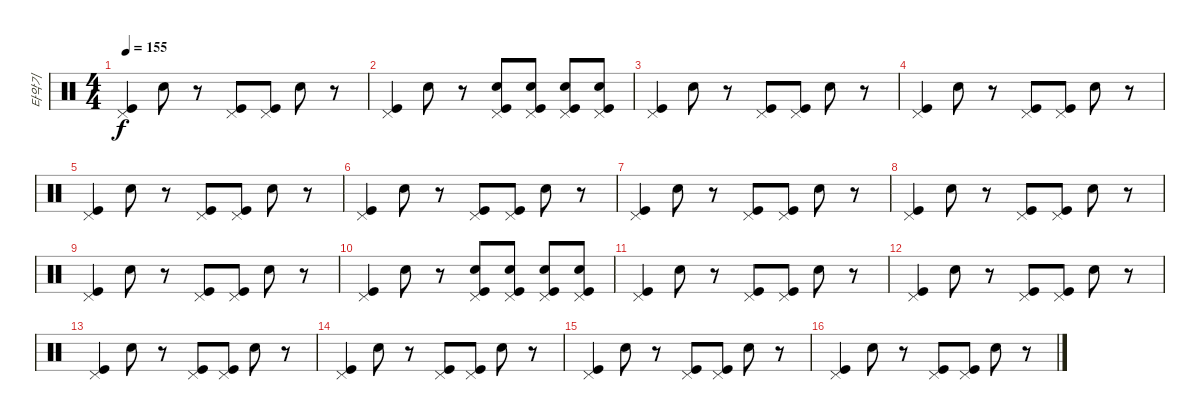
\track ("타악기" "타악기") {instrument percussion}
\staff {score}
\articulation defaults
\ts (4 4)
\tempo 155
\clef neutral
\ks c
("Pedal Hi-Hat (hit)" "Kick (hit)").4{dy f} "Electric Snare (hit)".8 r.8 ("Pedal Hi-Hat (hit)" "Kick (hit)").8 ("Pedal Hi-Hat (hit)" "Kick (hit)").8 "Electric Snare (hit)".8 r.8 |
("Pedal Hi-Hat (hit)" "Kick (hit)").4 "Electric Snare (hit)".8 r.8 ("Pedal Hi-Hat (hit)" "Electric Snare (hit)" "Kick (hit)").8 ("Pedal Hi-Hat (hit)" "Electric Snare (hit)" "Kick (hit)").8 ("Pedal Hi-Hat (hit)" "Electric Snare (hit)" "Kick (hit)").8 ("Pedal Hi-Hat (hit)" "Electric Snare (hit)" "Kick (hit)").8 |
("Pedal Hi-Hat (hit)" "Kick (hit)").4 "Electric Snare (hit)".8 r.8 ("Pedal Hi-Hat (hit)" "Kick (hit)").8 ("Pedal Hi-Hat (hit)" "Kick (hit)").8 "Electric Snare (hit)".8 r.8 |
("Pedal Hi-Hat (hit)" "Kick (hit)").4 "Electric Snare (hit)".8 r.8 ("Pedal Hi-Hat (hit)" "Kick (hit)").8 ("Pedal Hi-Hat (hit)" "Kick (hit)").8 "Electric Snare (hit)".8 r.8 |
("Pedal Hi-Hat (hit)" "Kick (hit)").4 "Electric Snare (hit)".8 r.8 ("Pedal Hi-Hat (hit)" "Kick (hit)").8 ("Pedal Hi-Hat (hit)" "Kick (hit)").8 "Electric Snare (hit)".8 r.8 |
("Pedal Hi-Hat (hit)" "Kick (hit)").4 "Electric Snare (hit)".8 r.8 ("Pedal Hi-Hat (hit)" "Kick (hit)").8 ("Pedal Hi-Hat (hit)" "Kick (hit)").8 "Electric Snare (hit)".8 r.8 |
("Pedal Hi-Hat (hit)" "Kick (hit)").4 "Electric Snare (hit)".8 r.8 ("Pedal Hi-Hat (hit)" "Kick (hit)").8 ("Pedal Hi-Hat (hit)" "Kick (hit)").8 "Electric Snare (hit)".8 r.8 |
("Pedal Hi-Hat (hit)" "Kick (hit)").4 "Electric Snare (hit)".8 r.8 ("Pedal Hi-Hat (hit)" "Kick (hit)").8 ("Pedal Hi-Hat (hit)" "Kick (hit)").8 "Electric Snare (hit)".8 r.8 |
("Pedal Hi-Hat (hit)" "Kick (hit)").4 "Electric Snare (hit)".8 r.8 ("Pedal Hi-Hat (hit)" "Kick (hit)").8 ("Pedal Hi-Hat (hit)" "Kick (hit)").8 "Electric Snare (hit)".8 r.8 |
("Pedal Hi-Hat (hit)" "Kick (hit)").4 "Electric Snare (hit)".8 r.8 ("Pedal Hi-Hat (hit)" "Electric Snare (hit)" "Kick (hit)").8 ("Pedal Hi-Hat (hit)" "Electric Snare (hit)" "Kick (hit)").8 ("Pedal Hi-Hat (hit)" "Electric Snare (hit)" "Kick (hit)").8 ("Pedal Hi-Hat (hit)" "Electric Snare (hit)" "Kick (hit)").8 |
("Pedal Hi-Hat (hit)" "Kick (hit)").4 "Electric Snare (hit)".8 r.8 ("Pedal Hi-Hat (hit)" "Kick (hit)").8 ("Pedal Hi-Hat (hit)" "Kick (hit)").8 "Electric Snare (hit)".8 r.8 |
("Pedal Hi-Hat (hit)" "Kick (hit)").4 "Electric Snare (hit)".8 r.8 ("Pedal Hi-Hat (hit)" "Kick (hit)").8 ("Pedal Hi-Hat (hit)" "Kick (hit)").8 "Electric Snare (hit)".8 r.8 |
("Pedal Hi-Hat (hit)" "Kick (hit)").4 "Electric Snare (hit)".8 r.8 ("Pedal Hi-Hat (hit)" "Kick (hit)").8 ("Pedal Hi-Hat (hit)" "Kick (hit)").8 "Electric Snare (hit)".8 r.8 |
("Pedal Hi-Hat (hit)" "Kick (hit)").4 "Electric Snare (hit)".8 r.8 ("Pedal Hi-Hat (hit)" "Kick (hit)").8 ("Pedal Hi-Hat (hit)" "Kick (hit)").8 "Electric Snare (hit)".8 r.8 |
("Pedal Hi-Hat (hit)" "Kick (hit)").4 "Electric Snare (hit)".8 r.8 ("Pedal Hi-Hat (hit)" "Kick (hit)").8 ("Pedal Hi-Hat (hit)" "Kick (hit)").8 "Electric Snare (hit)".8 r.8 |
("Pedal Hi-Hat (hit)" "Kick (hit)").4 "Electric Snare (hit)".8 r.8 ("Pedal Hi-Hat (hit)" "Kick (hit)").8 ("Pedal Hi-Hat (hit)" "Kick (hit)").8 "Electric Snare (hit)".8 r.8
